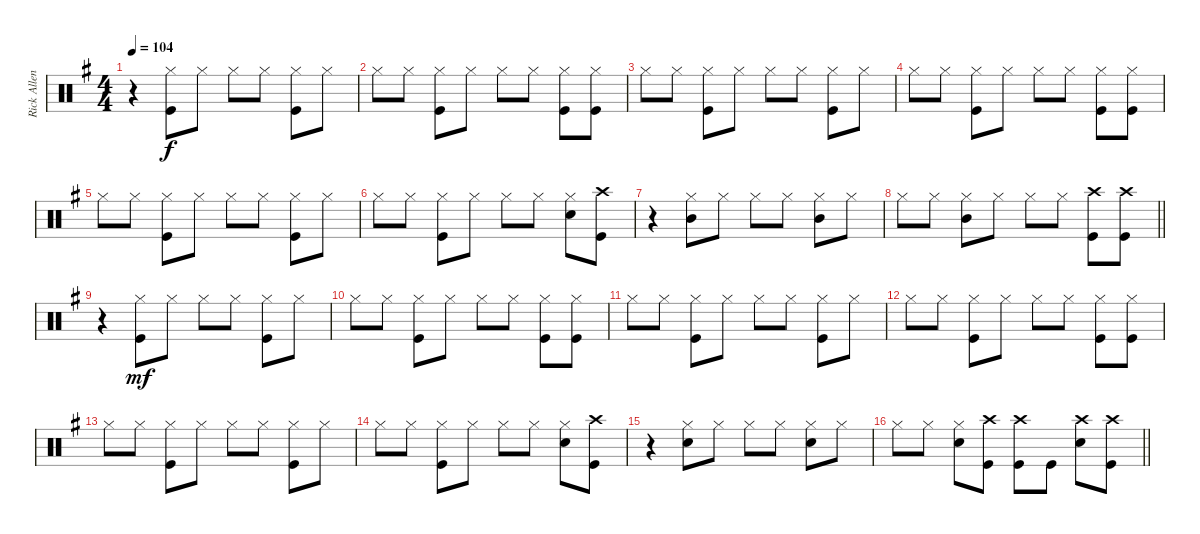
\track ("Rick Allen" "Rick Allen") {instrument percussion}
\staff {score}
\articulation defaults
\ts (4 4)
\tempo 104
\clef neutral
\ks eminor
r.4{dy f} ("Hi-Hat (closed)" "Kick (hit)").8 "Hi-Hat (closed)".8 "Hi-Hat (closed)".8 "Hi-Hat (closed)".8 ("Hi-Hat (closed)" "Kick (hit)").8 "Hi-Hat (closed)".8 |
"Hi-Hat (closed)".8 "Hi-Hat (closed)".8 ("Hi-Hat (closed)" "Kick (hit)").8 "Hi-Hat (closed)".8 "Hi-Hat (closed)".8 "Hi-Hat (closed)".8 ("Hi-Hat (closed)" "Kick (hit)").8 ("Hi-Hat (closed)" "Kick (hit)").8 |
"Hi-Hat (closed)".8 "Hi-Hat (closed)".8 ("Hi-Hat (closed)" "Kick (hit)").8 "Hi-Hat (closed)".8 "Hi-Hat (closed)".8 "Hi-Hat (closed)".8 ("Hi-Hat (closed)" "Kick (hit)").8 "Hi-Hat (closed)".8 |
"Hi-Hat (closed)".8 "Hi-Hat (closed)".8 ("Hi-Hat (closed)" "Kick (hit)").8 "Hi-Hat (closed)".8 "Hi-Hat (closed)".8 "Hi-Hat (closed)".8 ("Hi-Hat (closed)" "Kick (hit)").8 ("Hi-Hat (closed)" "Kick (hit)").8 |
"Hi-Hat (closed)".8 "Hi-Hat (closed)".8 ("Hi-Hat (closed)" "Kick (hit)").8 "Hi-Hat (closed)".8 "Hi-Hat (closed)".8 "Hi-Hat (closed)".8 ("Hi-Hat (closed)" "Kick (hit)").8 "Hi-Hat (closed)".8 |
"Hi-Hat (closed)".8 "Hi-Hat (closed)".8 ("Hi-Hat (closed)" "Kick (hit)").8 "Hi-Hat (closed)".8 "Hi-Hat (closed)".8 "Hi-Hat (closed)".8 ("Hi-Hat (closed)" "Snare (hit) 2").8 ("Crash high (hit)" "Kick (hit)").8 |
r.4 ("Hi-Hat (closed)" "Mid Tom (hit)").8 "Hi-Hat (closed)".8 "Hi-Hat (closed)".8 "Hi-Hat (closed)".8 ("Hi-Hat (closed)" "Mid Tom (hit)").8 "Hi-Hat (closed)".8 |
\barLineRight lightlight "Hi-Hat (closed)".8 "Hi-Hat (closed)".8
("Hi-Hat (closed)" "Mid Tom (hit)").8 "Hi-Hat (closed)".8 "Hi-Hat (closed)".8 "Hi-Hat (closed)".8 ("Crash high (hit)" "Kick (hit)").8 ("Crash high (hit)" "Kick (hit)").8 |
r.4 ("Hi-Hat (closed)" "Kick (hit)").8{dy mf} "Hi-Hat (closed)".8 "Hi-Hat (closed)".8 "Hi-Hat (closed)".8 ("Hi-Hat (closed)" "Kick (hit)").8 "Hi-Hat (closed)".8 |
"Hi-Hat (closed)".8 "Hi-Hat (closed)".8 ("Hi-Hat (closed)" "Kick (hit)").8 "Hi-Hat (closed)".8 "Hi-Hat (closed)".8 "Hi-Hat (closed)".8 ("Hi-Hat (closed)" "Kick (hit)").8 ("Hi-Hat (closed)" "Kick (hit)").8 |
"Hi-Hat (closed)".8 "Hi-Hat (closed)".8 ("Hi-Hat (closed)" "Kick (hit)").8 "Hi-Hat (closed)".8 "Hi-Hat (closed)".8 "Hi-Hat (closed)".8 ("Hi-Hat (closed)" "Kick (hit)").8 "Hi-Hat (closed)".8 |
"Hi-Hat (closed)".8 "Hi-Hat (closed)".8 ("Hi-Hat (closed)" "Kick (hit)").8 "Hi-Hat (closed)".8 "Hi-Hat (closed)".8 "Hi-Hat (closed)".8 ("Hi-Hat (closed)" "Kick (hit)").8 ("Hi-Hat (closed)" "Kick (hit)").8 |
"Hi-Hat (closed)".8 "Hi-Hat (closed)".8 ("Hi-Hat (closed)" "Kick (hit)").8 "Hi-Hat (closed)".8 "Hi-Hat (closed)".8 "Hi-Hat (closed)".8 ("Hi-Hat (closed)" "Kick (hit)").8 "Hi-Hat (closed)".8 |
"Hi-Hat (closed)".8 "Hi-Hat (closed)".8 ("Hi-Hat (closed)" "Kick (hit)").8 "Hi-Hat (closed)".8 "Hi-Hat (closed)".8 "Hi-Hat (closed)".8 ("Hi-Hat (closed)" "Snare (hit) 2").8 ("Crash high (hit)" "Kick (hit)").8 |
r.4 ("Hi-Hat (closed)" "Snare (hit) 2").8 "Hi-Hat (closed)".8 "Hi-Hat (closed)".8 "Hi-Hat (closed)".8 ("Hi-Hat (closed)" "Snare (hit) 2").8 "Hi-Hat (closed)".8 |
\barLineRight lightlight "Hi-Hat (closed)".8 "Hi-Hat (closed)".8
("Hi-Hat (closed)" "Snare (hit) 2").8 ("Crash high (hit)" "Kick (hit)").8 ("Crash high (hit)" "Kick (hit)").8 "Kick (hit)".8 ("Crash high (hit)" "Snare (hit) 2").8 ("Crash high (hit)" "Kick (hit)").8
